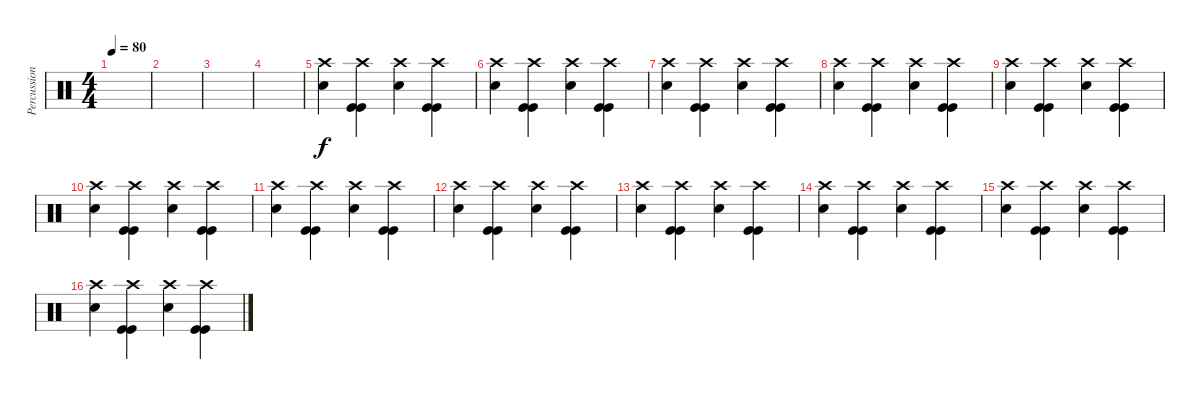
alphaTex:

\track ("Percussion" "Percussion") {instrument percussion}
\staff {score}
\articulation defaults
\ts (4 4)
\tempo 80
\clef neutral
\ks c
|
|
|
|
("Crash high (hit)" "Snare (hit) 2").4 ("Crash high (hit)" "Kick (hit)" "Kick (hit)").4 ("Crash high (hit)" "Snare (hit) 2").4 ("Crash high (hit)" "Kick (hit)" "Kick (hit)").4 |
("Crash high (hit)" "Snare (hit) 2").4 ("Crash high (hit)" "Kick (hit)" "Kick (hit)").4 ("Crash high (hit)" "Snare (hit) 2").4 ("Crash high (hit)" "Kick (hit)" "Kick (hit)").4 |
("Crash high (hit)" "Snare (hit) 2").4 ("Crash high (hit)" "Kick (hit)" "Kick (hit)").4 ("Crash high (hit)" "Snare (hit) 2").4 ("Crash high (hit)" "Kick (hit)" "Kick (hit)").4 |
("Crash high (hit)" "Snare (hit) 2").4 ("Crash high (hit)" "Kick (hit)" "Kick (hit)").4 ("Crash high (hit)" "Snare (hit) 2").4 ("Crash high (hit)" "Kick (hit)" "Kick (hit)").4 |
("Crash high (hit)" "Snare (hit) 2").4 ("Crash high (hit)" "Kick (hit)" "Kick (hit)").4 ("Crash high (hit)" "Snare (hit) 2").4 ("Crash high (hit)" "Kick (hit)" "Kick (hit)").4 |
("Crash high (hit)" "Snare (hit) 2").4 ("Crash high (hit)" "Kick (hit)" "Kick (hit)").4 ("Crash high (hit)" "Snare (hit) 2").4 ("Crash high (hit)" "Kick (hit)" "Kick (hit)").4 |
("Crash high (hit)" "Snare (hit) 2").4 ("Crash high (hit)" "Kick (hit)" "Kick (hit)").4 ("Crash high (hit)" "Snare (hit) 2").4 ("Crash high (hit)" "Kick (hit)" "Kick (hit)").4 |
("Crash high (hit)" "Snare (hit) 2").4 ("Crash high (hit)" "Kick (hit)" "Kick (hit)").4 ("Crash high (hit)" "Snare (hit) 2").4 ("Crash high (hit)" "Kick (hit)" "Kick (hit)").4 |
("Crash high (hit)" "Snare (hit) 2").4 ("Crash high (hit)" "Kick (hit)" "Kick (hit)").4 ("Crash high (hit)" "Snare (hit) 2").4 ("Crash high (hit)" "Kick (hit)" "Kick (hit)").4 |
("Crash high (hit)" "Snare (hit) 2").4 ("Crash high (hit)" "Kick (hit)" "Kick (hit)").4 ("Crash high (hit)" "Snare (hit) 2").4 ("Crash high (hit)" "Kick (hit)" "Kick (hit)").4 |
("Crash high (hit)" "Snare (hit) 2").4 ("Crash high (hit)" "Kick (hit)" "Kick (hit)").4 ("Crash high (hit)" "Snare (hit) 2").4 ("Crash high (hit)" "Kick (hit)" "Kick (hit)").4 |
("Crash high (hit)" "Snare (hit) 2").4 ("Crash high (hit)" "Kick (hit)" "Kick (hit)").4 ("Crash high (hit)" "Snare (hit) 2").4 ("Crash high (hit)" "Kick (hit)" "Kick (hit)").4
